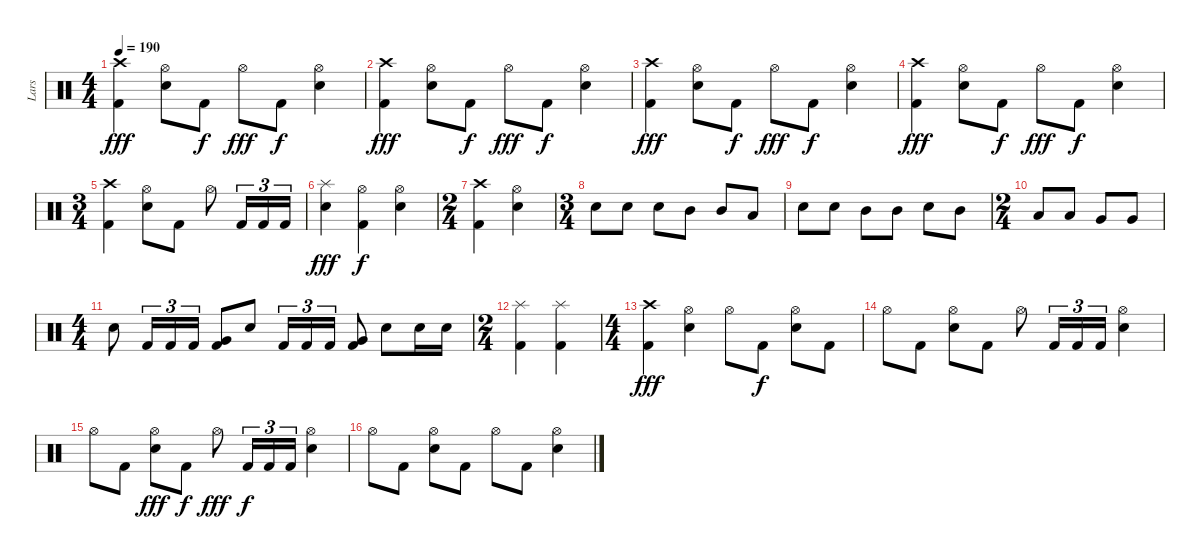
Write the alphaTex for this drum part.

\track ("Lars" "Lars") {instrument percussion}
\staff {score}
\articulation defaults
\ts (4 4)
\tempo 190
\clef neutral
\ks c
("Crash high (hit)" "Kick (hit) 2").4{dy fff} ("Hi-Hat (open)" "Snare (hit) 2").8 "Kick (hit) 2".8{dy f} "Hi-Hat (open)".8{dy fff} "Kick (hit) 2".8{dy f} ("Hi-Hat (open)" "Snare (hit) 2").4 |
("Crash high (hit)" "Kick (hit) 2").4{dy fff} ("Hi-Hat (open)" "Snare (hit) 2").8 "Kick (hit) 2".8{dy f} "Hi-Hat (open)".8{dy fff} "Kick (hit) 2".8{dy f} ("Hi-Hat (open)" "Snare (hit) 2").4 |
("Crash high (hit)" "Kick (hit) 2").4{dy fff} ("Hi-Hat (open)" "Snare (hit) 2").8 "Kick (hit) 2".8{dy f} "Hi-Hat (open)".8{dy fff} "Kick (hit) 2".8{dy f} ("Hi-Hat (open)" "Snare (hit) 2").4 |
("Crash high (hit)" "Kick (hit) 2").4{dy fff} ("Hi-Hat (open)" "Snare (hit) 2").8 "Kick (hit) 2".8{dy f} "Hi-Hat (open)".8{dy fff} "Kick (hit) 2".8{dy f} ("Hi-Hat (open)" "Snare (hit) 2").4 |
\ts (3 4)
("Crash high (hit)" "Kick (hit) 2").4 ("Hi-Hat (open)" "Snare (hit) 2").8 "Kick (hit) 2".8 "Hi-Hat (open)".8 "Kick (hit) 2".16{tu (3 2)} "Kick (hit) 2".16{tu (3 2)} "Kick (hit) 2".16{tu (3 2)} |
("Splash (hit)" "Snare (hit) 2").4{dy fff} ("Hi-Hat (open)" "Kick (hit) 2").4{dy f} ("Hi-Hat (open)" "Snare (hit) 2").4 |
\ts (2 4)
("Crash high (hit)" "Kick (hit) 2").4 ("Hi-Hat (open)" "Snare (hit) 2").4 |
\ts (3 4)
"Snare (hit) 2".8 "Snare (hit) 2".8 "Snare (hit) 2".8 "Mid Tom (hit)".8 "Mid Tom (hit)".8 "Low Tom (hit)".8 |
"Snare (hit) 2".8 "Snare (hit) 2".8 "Mid Tom (hit)".8 "Mid Tom (hit)".8 "Snare (hit) 2".8 "Mid Tom (hit)".8 |
\ts (2 4)
"Low Tom (hit)".8 "Low Tom (hit)".8 "Very Low Tom (hit)".8 "Very Low Tom (hit)".8 |
\ts (4 4)
"Snare (hit) 2".8 "Kick (hit) 2".16{tu (3 2)} "Kick (hit) 2".16{tu (3 2)} "Kick (hit) 2".16{tu (3 2)} ("Very Low Tom (hit)" "Kick (hit) 2").8 "Snare (hit) 2".8 "Kick (hit) 2".16{tu (3 2)} "Kick (hit) 2".16{tu (3 2)} "Kick (hit) 2".16{tu (3 2)} ("Very Low Tom (hit)" "Kick (hit) 2").8 "Snare (hit) 2".8 "Snare (hit) 2".16 "Snare (hit) 2".16 |
\ts (2 4)
("Splash (hit)" "Kick (hit) 2").4 ("Splash (hit)" "Kick (hit) 2").4 |
\ts (4 4)
("Crash high (hit)" "Kick (hit) 2").4{dy fff} ("Hi-Hat (open)" "Snare (hit) 2").4 "Hi-Hat (open)".8 "Kick (hit) 2".8{dy f} ("Hi-Hat (open)" "Snare (hit) 2").8 "Kick (hit) 2".8 |
"Hi-Hat (open)".8 "Kick (hit) 2".8 ("Hi-Hat (open)" "Snare (hit) 2").8 "Kick (hit) 2".8 "Hi-Hat (open)".8 "Kick (hit) 2".16{tu (3 2)} "Kick (hit) 2".16{tu (3 2)} "Kick (hit) 2".16{tu (3 2)} ("Hi-Hat (open)" "Snare (hit) 2").4 |
"Hi-Hat (open)".8 "Kick (hit) 2".8 ("Hi-Hat (open)" "Snare (hit) 2").8{dy fff} "Kick (hit) 2".8{dy f} "Hi-Hat (open)".8{dy fff} "Kick (hit) 2".16{tu (3 2) dy f} "Kick (hit) 2".16{tu (3 2)} "Kick (hit) 2".16{tu (3 2)} ("Hi-Hat (open)" "Snare (hit) 2").4 |
"Hi-Hat (open)".8 "Kick (hit) 2".8 ("Hi-Hat (open)" "Snare (hit) 2").8 "Kick (hit) 2".8 "Hi-Hat (open)".8 "Kick (hit) 2".8 ("Hi-Hat (open)" "Snare (hit) 2").4
